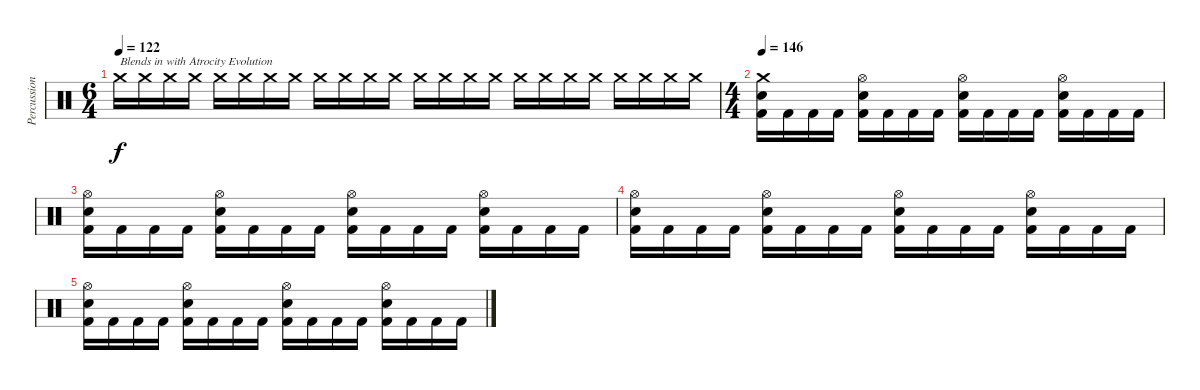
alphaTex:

\track ("Percussion" "Percussion") {instrument percussion}
\staff {score}
\articulation defaults
\ts (6 4)
\tempo 122
\clef neutral
\ks c "Crash medium (hit)".16{txt "Blends in with Atrocity Evolution" dy f volume 13} "Crash medium (hit)".16 "Crash medium (hit)".16 "Crash medium (hit)".16 "Crash medium (hit)".16 "Crash medium (hit)".16 "Crash medium (hit)".16 "Crash medium (hit)".16 "Crash medium (hit)".16 "Crash medium (hit)".16 "Crash medium (hit)".16 "Crash medium (hit)".16 "Crash medium (hit)".16 "Crash medium (hit)".16 "Crash medium (hit)".16 "Crash medium (hit)".16 "Crash medium (hit)".16 "Crash medium (hit)".16 "Crash medium (hit)".16 "Crash medium (hit)".16 "Crash medium (hit)".16 "Crash medium (hit)".16 "Crash medium (hit)".16 "Crash medium (hit)".16
|
\ts (4 4)
\tempo 146
("Crash medium (hit)" "Electric Snare (hit)" "Kick (hit) 2").16 "Kick (hit) 2".16 "Kick (hit) 2".16 "Kick (hit) 2".16 ("Hi-Hat (open)" "Electric Snare (hit)" "Kick (hit) 2").16 "Kick (hit) 2".16 "Kick (hit) 2".16 "Kick (hit) 2".16 ("Hi-Hat (open)" "Electric Snare (hit)" "Kick (hit) 2").16 "Kick (hit) 2".16 "Kick (hit) 2".16 "Kick (hit) 2".16 ("Hi-Hat (open)" "Electric Snare (hit)" "Kick (hit) 2").16 "Kick (hit) 2".16 "Kick (hit) 2".16 "Kick (hit) 2".16 |
("Hi-Hat (open)" "Electric Snare (hit)" "Kick (hit) 2").16 "Kick (hit) 2".16 "Kick (hit) 2".16 "Kick (hit) 2".16 ("Hi-Hat (open)" "Electric Snare (hit)" "Kick (hit) 2").16 "Kick (hit) 2".16 "Kick (hit) 2".16 "Kick (hit) 2".16 ("Hi-Hat (open)" "Electric Snare (hit)" "Kick (hit) 2").16 "Kick (hit) 2".16 "Kick (hit) 2".16 "Kick (hit) 2".16 ("Hi-Hat (open)" "Electric Snare (hit)" "Kick (hit) 2").16 "Kick (hit) 2".16 "Kick (hit) 2".16 "Kick (hit) 2".16 |
("Hi-Hat (open)" "Electric Snare (hit)" "Kick (hit) 2").16 "Kick (hit) 2".16 "Kick (hit) 2".16 "Kick (hit) 2".16 ("Hi-Hat (open)" "Electric Snare (hit)" "Kick (hit) 2").16 "Kick (hit) 2".16 "Kick (hit) 2".16 "Kick (hit) 2".16 ("Hi-Hat (open)" "Electric Snare (hit)" "Kick (hit) 2").16 "Kick (hit) 2".16 "Kick (hit) 2".16 "Kick (hit) 2".16 ("Hi-Hat (open)" "Electric Snare (hit)" "Kick (hit) 2").16 "Kick (hit) 2".16 "Kick (hit) 2".16 "Kick (hit) 2".16 |
("Hi-Hat (open)" "Electric Snare (hit)" "Kick (hit) 2").16 "Kick (hit) 2".16 "Kick (hit) 2".16 "Kick (hit) 2".16 ("Hi-Hat (open)" "Electric Snare (hit)" "Kick (hit) 2").16 "Kick (hit) 2".16 "Kick (hit) 2".16 "Kick (hit) 2".16 ("Hi-Hat (open)" "Electric Snare (hit)" "Kick (hit) 2").16 "Kick (hit) 2".16 "Kick (hit) 2".16 "Kick (hit) 2".16 ("Hi-Hat (open)" "Electric Snare (hit)" "Kick (hit) 2").16 "Kick (hit) 2".16 "Kick (hit) 2".16 "Kick (hit) 2".16
